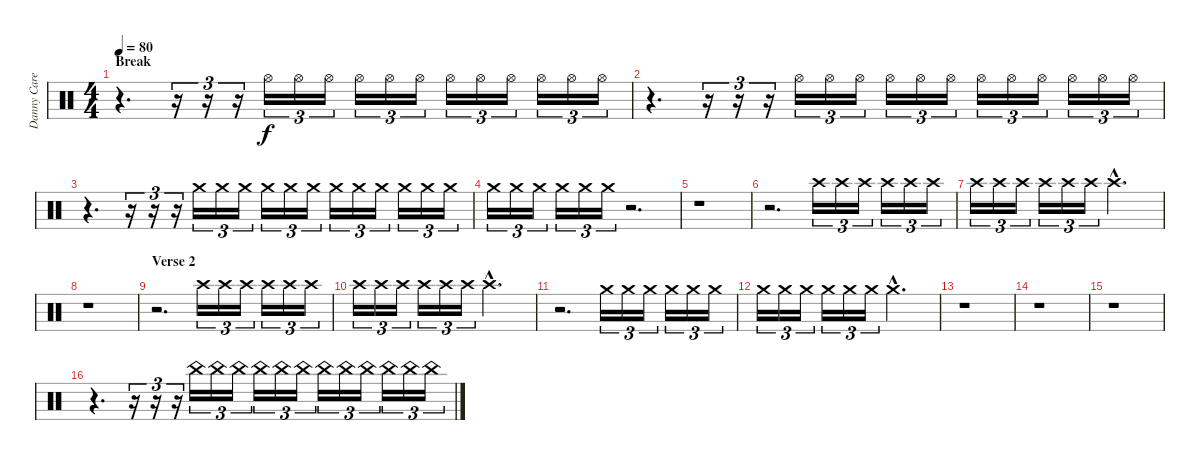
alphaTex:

\track ("Danny Carey - Percussion" "Danny Care") {instrument percussion}
\staff {score}
\articulation defaults
\ts (4 4)
\section ("" "Break")
\tempo 80
\clef neutral
\ks c
r.4{d dy f} r.16{tu (3 2)} r.16{tu (3 2)} r.16{tu (3 2) volume 0} "Hi-Hat (open)".16{tu (3 2) volume 10} "Hi-Hat (open)".16{tu (3 2)} "Hi-Hat (open)".16{tu (3 2)} "Hi-Hat (open)".16{tu (3 2)} "Hi-Hat (open)".16{tu (3 2)} "Hi-Hat (open)".16{tu (3 2)} "Hi-Hat (open)".16{tu (3 2)} "Hi-Hat (open)".16{tu (3 2)} "Hi-Hat (open)".16{tu (3 2)} "Hi-Hat (open)".16{tu (3 2)} "Hi-Hat (open)".16{tu (3 2)} "Hi-Hat (open)".16{tu (3 2)} |
r.4{d} r.16{tu (3 2)} r.16{tu (3 2)} r.16{tu (3 2) volume 0} "Hi-Hat (open)".16{tu (3 2) volume 10} "Hi-Hat (open)".16{tu (3 2)} "Hi-Hat (open)".16{tu (3 2)} "Hi-Hat (open)".16{tu (3 2)} "Hi-Hat (open)".16{tu (3 2)} "Hi-Hat (open)".16{tu (3 2)} "Hi-Hat (open)".16{tu (3 2)} "Hi-Hat (open)".16{tu (3 2)} "Hi-Hat (open)".16{tu (3 2)} "Hi-Hat (open)".16{tu (3 2)} "Hi-Hat (open)".16{tu (3 2)} "Hi-Hat (open)".16{tu (3 2)} |
r.4{d} r.16{tu (3 2)} r.16{tu (3 2)} r.16{tu (3 2) volume 0} "Crash medium (hit)".16{tu (3 2) volume 10} "Crash medium (hit)".16{tu (3 2)} "Crash medium (hit)".16{tu (3 2)} "Crash medium (hit)".16{tu (3 2)} "Crash medium (hit)".16{tu (3 2)} "Crash medium (hit)".16{tu (3 2)} "Crash medium (hit)".16{tu (3 2)} "Crash medium (hit)".16{tu (3 2)} "Crash medium (hit)".16{tu (3 2)} "Crash medium (hit)".16{tu (3 2)} "Crash medium (hit)".16{tu (3 2)} "Crash medium (hit)".16{tu (3 2)} |
"Crash medium (hit)".16{tu (3 2)} "Crash medium (hit)".16{tu (3 2)} "Crash medium (hit)".16{tu (3 2)} "Crash medium (hit)".16{tu (3 2)} "Crash medium (hit)".16{tu (3 2)} "Crash medium (hit)".16{tu (3 2)} r.2{d} |
r.1 |
r.2{d volume 0} "Crash high (hit)".16{tu (3 2) volume 10} "Crash high (hit)".16{tu (3 2)} "Crash high (hit)".16{tu (3 2)} "Crash high (hit)".16{tu (3 2)} "Crash high (hit)".16{tu (3 2)} "Crash high (hit)".16{tu (3 2)} |
"Crash high (hit)".16{tu (3 2)} "Crash high (hit)".16{tu (3 2)} "Crash high (hit)".16{tu (3 2)} "Crash high (hit)".16{tu (3 2)} "Crash high (hit)".16{tu (3 2)} "Crash high (hit)".16{tu (3 2)} "Crash high (hit)"{hac}.2{d} |
r.1 |
\section ("" "Verse 2")
r.2{d volume 0} "Crash high (hit)".16{tu (3 2) volume 10} "Crash high (hit)".16{tu (3 2)} "Crash high (hit)".16{tu (3 2)} "Crash high (hit)".16{tu (3 2)} "Crash high (hit)".16{tu (3 2)} "Crash high (hit)".16{tu (3 2)} |
"Crash high (hit)".16{tu (3 2)} "Crash high (hit)".16{tu (3 2)} "Crash high (hit)".16{tu (3 2)} "Crash high (hit)".16{tu (3 2)} "Crash high (hit)".16{tu (3 2)} "Crash high (hit)".16{tu (3 2)} "Crash high (hit)"{hac}.2{d} |
r.2{d volume 0} "Crash medium (hit)".16{tu (3 2) volume 10} "Crash medium (hit)".16{tu (3 2)} "Crash medium (hit)".16{tu (3 2)} "Crash medium (hit)".16{tu (3 2)} "Crash medium (hit)".16{tu (3 2)} "Crash medium (hit)".16{tu (3 2)} |
"Crash medium (hit)".16{tu (3 2)} "Crash medium (hit)".16{tu (3 2)} "Crash medium (hit)".16{tu (3 2)} "Crash medium (hit)".16{tu (3 2)} "Crash medium (hit)".16{tu (3 2)} "Crash medium (hit)".16{tu (3 2)} "Crash medium (hit)"{hac}.2{d} |
r.1 |
r.1 |
r.1 |
r.4{d} r.16{tu (3 2)} r.16{tu (3 2)} r.16{tu (3 2) volume 0} "China (hit)".16{tu (3 2) volume 10} "China (hit)".16{tu (3 2)} "China (hit)".16{tu (3 2)} "China (hit)".16{tu (3 2)} "China (hit)".16{tu (3 2)} "China (hit)".16{tu (3 2)} "China (hit)".16{tu (3 2)} "China (hit)".16{tu (3 2)} "China (hit)".16{tu (3 2)} "China (hit)".16{tu (3 2)} "China (hit)".16{tu (3 2)} "China (hit)".16{tu (3 2)}
